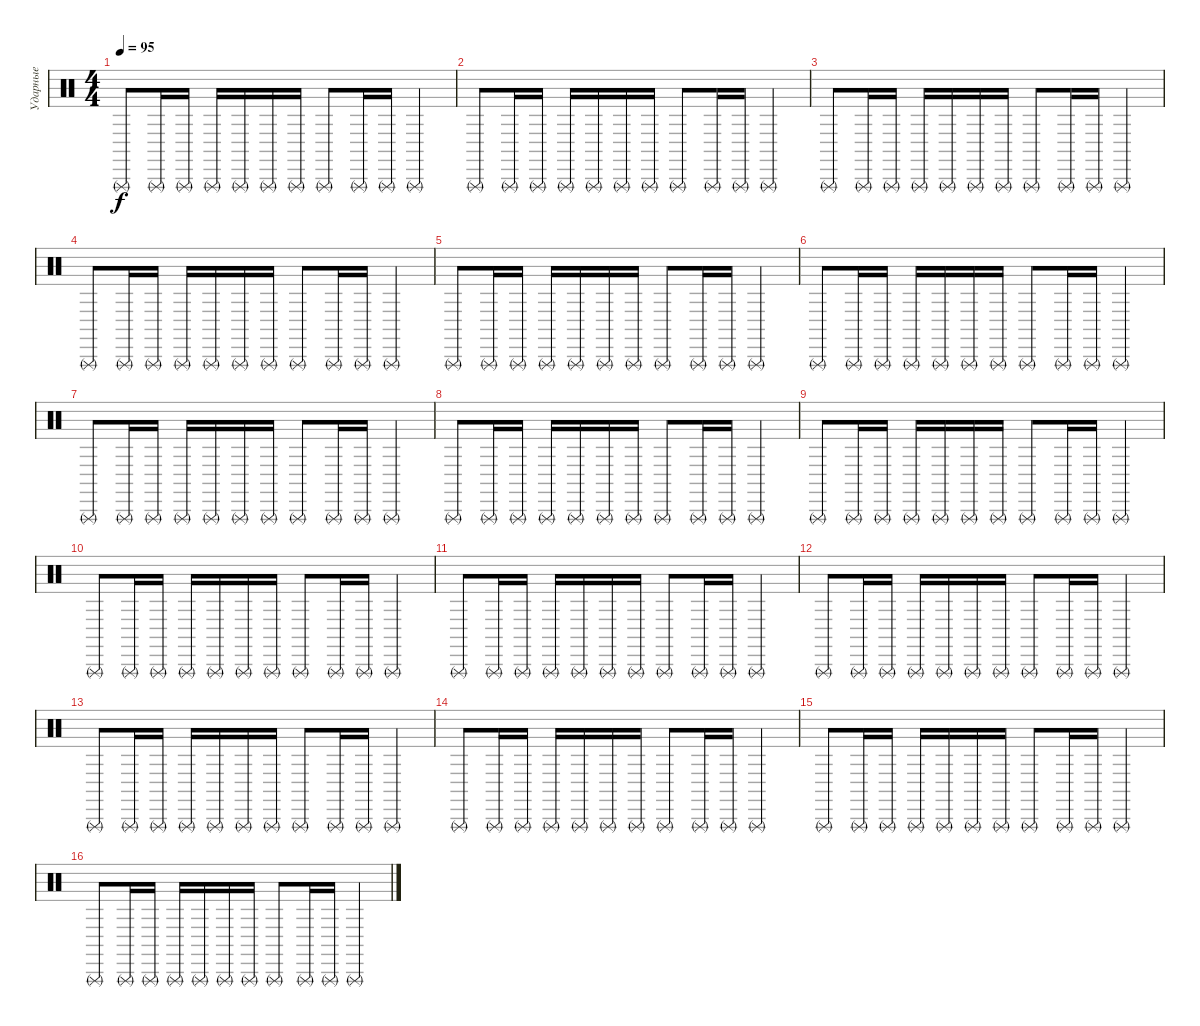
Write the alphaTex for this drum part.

\track ("Ударные" "Ударные") {instrument percussion}
\staff {score}
\articulation defaults
\ts (4 4)
\tempo 95
\clef neutral
\ks c "Triangle (rnute)".8{dy f} "Triangle (rnute)".16 "Triangle (rnute)".16 "Triangle (rnute)".16 "Triangle (rnute)".16 "Triangle (rnute)".16 "Triangle (rnute)".16 "Triangle (rnute)".8 "Triangle (rnute)".16 "Triangle (rnute)".16 "Triangle (rnute)".4
|
"Triangle (rnute)".8 "Triangle (rnute)".16 "Triangle (rnute)".16 "Triangle (rnute)".16 "Triangle (rnute)".16 "Triangle (rnute)".16 "Triangle (rnute)".16 "Triangle (rnute)".8 "Triangle (rnute)".16 "Triangle (rnute)".16 "Triangle (rnute)".4 |
"Triangle (rnute)".8 "Triangle (rnute)".16 "Triangle (rnute)".16 "Triangle (rnute)".16 "Triangle (rnute)".16 "Triangle (rnute)".16 "Triangle (rnute)".16 "Triangle (rnute)".8 "Triangle (rnute)".16 "Triangle (rnute)".16 "Triangle (rnute)".4 |
"Triangle (rnute)".8 "Triangle (rnute)".16 "Triangle (rnute)".16 "Triangle (rnute)".16 "Triangle (rnute)".16 "Triangle (rnute)".16 "Triangle (rnute)".16 "Triangle (rnute)".8 "Triangle (rnute)".16 "Triangle (rnute)".16 "Triangle (rnute)".4 |
"Triangle (rnute)".8 "Triangle (rnute)".16 "Triangle (rnute)".16 "Triangle (rnute)".16 "Triangle (rnute)".16 "Triangle (rnute)".16 "Triangle (rnute)".16 "Triangle (rnute)".8 "Triangle (rnute)".16 "Triangle (rnute)".16 "Triangle (rnute)".4 |
"Triangle (rnute)".8 "Triangle (rnute)".16 "Triangle (rnute)".16 "Triangle (rnute)".16 "Triangle (rnute)".16 "Triangle (rnute)".16 "Triangle (rnute)".16 "Triangle (rnute)".8 "Triangle (rnute)".16 "Triangle (rnute)".16 "Triangle (rnute)".4 |
"Triangle (rnute)".8 "Triangle (rnute)".16 "Triangle (rnute)".16 "Triangle (rnute)".16 "Triangle (rnute)".16 "Triangle (rnute)".16 "Triangle (rnute)".16 "Triangle (rnute)".8 "Triangle (rnute)".16 "Triangle (rnute)".16 "Triangle (rnute)".4 |
"Triangle (rnute)".8 "Triangle (rnute)".16 "Triangle (rnute)".16 "Triangle (rnute)".16 "Triangle (rnute)".16 "Triangle (rnute)".16 "Triangle (rnute)".16 "Triangle (rnute)".8 "Triangle (rnute)".16 "Triangle (rnute)".16 "Triangle (rnute)".4 |
"Triangle (rnute)".8 "Triangle (rnute)".16 "Triangle (rnute)".16 "Triangle (rnute)".16 "Triangle (rnute)".16 "Triangle (rnute)".16 "Triangle (rnute)".16 "Triangle (rnute)".8 "Triangle (rnute)".16 "Triangle (rnute)".16 "Triangle (rnute)".4 |
"Triangle (rnute)".8 "Triangle (rnute)".16 "Triangle (rnute)".16 "Triangle (rnute)".16 "Triangle (rnute)".16 "Triangle (rnute)".16 "Triangle (rnute)".16 "Triangle (rnute)".8 "Triangle (rnute)".16 "Triangle (rnute)".16 "Triangle (rnute)".4 |
"Triangle (rnute)".8 "Triangle (rnute)".16 "Triangle (rnute)".16 "Triangle (rnute)".16 "Triangle (rnute)".16 "Triangle (rnute)".16 "Triangle (rnute)".16 "Triangle (rnute)".8 "Triangle (rnute)".16 "Triangle (rnute)".16 "Triangle (rnute)".4 |
"Triangle (rnute)".8 "Triangle (rnute)".16 "Triangle (rnute)".16 "Triangle (rnute)".16 "Triangle (rnute)".16 "Triangle (rnute)".16 "Triangle (rnute)".16 "Triangle (rnute)".8 "Triangle (rnute)".16 "Triangle (rnute)".16 "Triangle (rnute)".4 |
"Triangle (rnute)".8 "Triangle (rnute)".16 "Triangle (rnute)".16 "Triangle (rnute)".16 "Triangle (rnute)".16 "Triangle (rnute)".16 "Triangle (rnute)".16 "Triangle (rnute)".8 "Triangle (rnute)".16 "Triangle (rnute)".16 "Triangle (rnute)".4 |
"Triangle (rnute)".8 "Triangle (rnute)".16 "Triangle (rnute)".16 "Triangle (rnute)".16 "Triangle (rnute)".16 "Triangle (rnute)".16 "Triangle (rnute)".16 "Triangle (rnute)".8 "Triangle (rnute)".16 "Triangle (rnute)".16 "Triangle (rnute)".4 |
"Triangle (rnute)".8 "Triangle (rnute)".16 "Triangle (rnute)".16 "Triangle (rnute)".16 "Triangle (rnute)".16 "Triangle (rnute)".16 "Triangle (rnute)".16 "Triangle (rnute)".8 "Triangle (rnute)".16 "Triangle (rnute)".16 "Triangle (rnute)".4 |
"Triangle (rnute)".8 "Triangle (rnute)".16 "Triangle (rnute)".16 "Triangle (rnute)".16 "Triangle (rnute)".16 "Triangle (rnute)".16 "Triangle (rnute)".16 "Triangle (rnute)".8 "Triangle (rnute)".16 "Triangle (rnute)".16 "Triangle (rnute)".4
